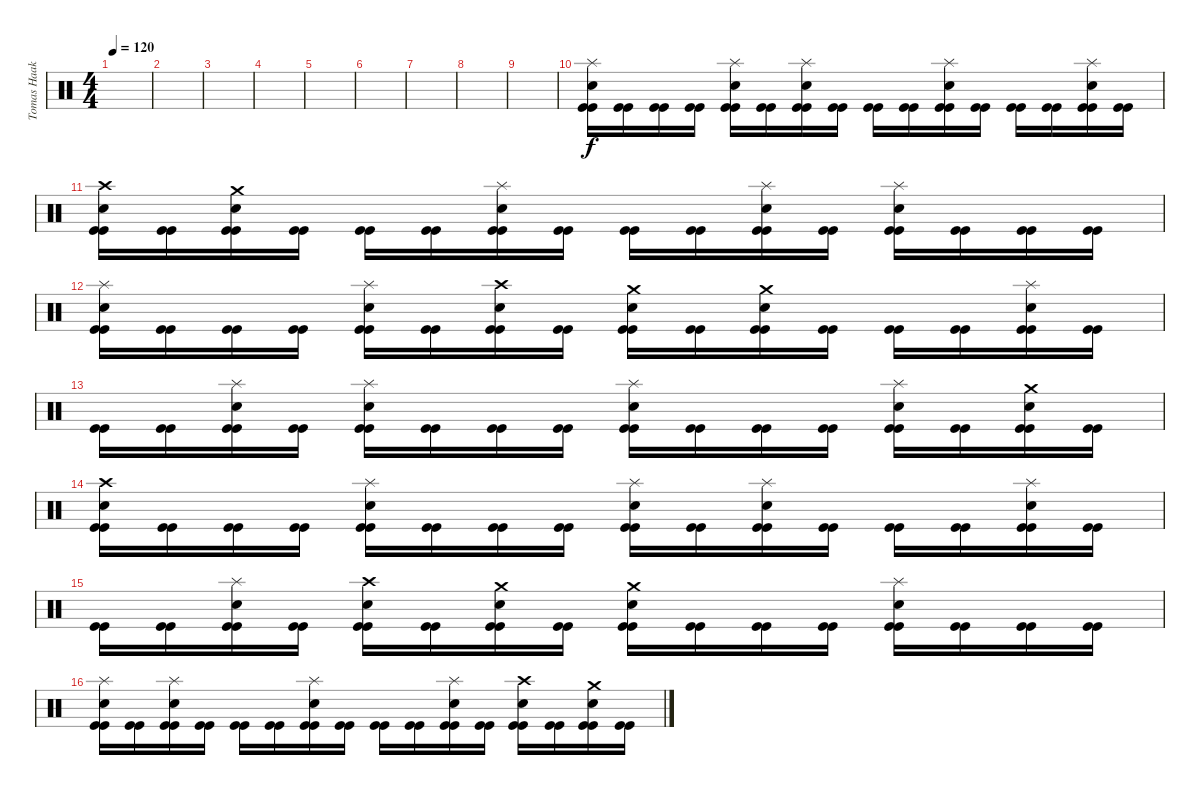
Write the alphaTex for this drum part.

\track ("Tomas Haake" "Tomas Haak") {instrument percussion}
\staff {score}
\articulation defaults
\ts (4 4)
\tempo 120
\clef neutral
\ks c
|
|
|
|
|
|
|
|
|
("Splash (hit)" "Electric Snare (hit)" "Kick (hit)" "Kick (hit)").16 ("Kick (hit)" "Kick (hit)").16 ("Kick (hit)" "Kick (hit)").16 ("Kick (hit)" "Kick (hit)").16 ("Splash (hit)" "Electric Snare (hit)" "Kick (hit)" "Kick (hit)").16 ("Kick (hit)" "Kick (hit)").16 ("Splash (hit)" "Electric Snare (hit)" "Kick (hit)" "Kick (hit)").16 ("Kick (hit)" "Kick (hit)").16 ("Kick (hit)" "Kick (hit)").16 ("Kick (hit)" "Kick (hit)").16 ("Splash (hit)" "Electric Snare (hit)" "Kick (hit)" "Kick (hit)").16 ("Kick (hit)" "Kick (hit)").16 ("Kick (hit)" "Kick (hit)").16 ("Kick (hit)" "Kick (hit)").16 ("Splash (hit)" "Electric Snare (hit)" "Kick (hit)" "Kick (hit)").16 ("Kick (hit)" "Kick (hit)").16 |
("Crash high (hit)" "Electric Snare (hit)" "Kick (hit)" "Kick (hit)").16 ("Kick (hit)" "Kick (hit)").16 ("Crash medium (hit)" "Electric Snare (hit)" "Kick (hit)" "Kick (hit)").16 ("Kick (hit)" "Kick (hit)").16 ("Kick (hit)" "Kick (hit)").16 ("Kick (hit)" "Kick (hit)").16 ("Splash (hit)" "Electric Snare (hit)" "Kick (hit)" "Kick (hit)").16 ("Kick (hit)" "Kick (hit)").16 ("Kick (hit)" "Kick (hit)").16 ("Kick (hit)" "Kick (hit)").16 ("Splash (hit)" "Electric Snare (hit)" "Kick (hit)" "Kick (hit)").16 ("Kick (hit)" "Kick (hit)").16 ("Splash (hit)" "Electric Snare (hit)" "Kick (hit)" "Kick (hit)").16 ("Kick (hit)" "Kick (hit)").16 ("Kick (hit)" "Kick (hit)").16 ("Kick (hit)" "Kick (hit)").16 |
("Splash (hit)" "Electric Snare (hit)" "Kick (hit)" "Kick (hit)").16 ("Kick (hit)" "Kick (hit)").16 ("Kick (hit)" "Kick (hit)").16 ("Kick (hit)" "Kick (hit)").16 ("Splash (hit)" "Electric Snare (hit)" "Kick (hit)" "Kick (hit)").16 ("Kick (hit)" "Kick (hit)").16 ("Crash high (hit)" "Electric Snare (hit)" "Kick (hit)" "Kick (hit)").16 ("Kick (hit)" "Kick (hit)").16 ("Crash medium (hit)" "Electric Snare (hit)" "Kick (hit)" "Kick (hit)").16 ("Kick (hit)" "Kick (hit)").16 ("Crash medium (hit)" "Electric Snare (hit)" "Kick (hit)" "Kick (hit)").16 ("Kick (hit)" "Kick (hit)").16 ("Kick (hit)" "Kick (hit)").16 ("Kick (hit)" "Kick (hit)").16 ("Splash (hit)" "Electric Snare (hit)" "Kick (hit)" "Kick (hit)").16 ("Kick (hit)" "Kick (hit)").16 |
("Kick (hit)" "Kick (hit)").16 ("Kick (hit)" "Kick (hit)").16 ("Splash (hit)" "Electric Snare (hit)" "Kick (hit)" "Kick (hit)").16 ("Kick (hit)" "Kick (hit)").16 ("Splash (hit)" "Electric Snare (hit)" "Kick (hit)" "Kick (hit)").16 ("Kick (hit)" "Kick (hit)").16 ("Kick (hit)" "Kick (hit)").16 ("Kick (hit)" "Kick (hit)").16 ("Splash (hit)" "Electric Snare (hit)" "Kick (hit)" "Kick (hit)").16 ("Kick (hit)" "Kick (hit)").16 ("Kick (hit)" "Kick (hit)").16 ("Kick (hit)" "Kick (hit)").16 ("Splash (hit)" "Electric Snare (hit)" "Kick (hit)" "Kick (hit)").16 ("Kick (hit)" "Kick (hit)").16 ("Crash medium (hit)" "Electric Snare (hit)" "Kick (hit)" "Kick (hit)").16 ("Kick (hit)" "Kick (hit)").16 |
("Crash high (hit)" "Electric Snare (hit)" "Kick (hit)" "Kick (hit)").16 ("Kick (hit)" "Kick (hit)").16 ("Kick (hit)" "Kick (hit)").16 ("Kick (hit)" "Kick (hit)").16 ("Splash (hit)" "Electric Snare (hit)" "Kick (hit)" "Kick (hit)").16 ("Kick (hit)" "Kick (hit)").16 ("Kick (hit)" "Kick (hit)").16 ("Kick (hit)" "Kick (hit)").16 ("Splash (hit)" "Electric Snare (hit)" "Kick (hit)" "Kick (hit)").16 ("Kick (hit)" "Kick (hit)").16 ("Splash (hit)" "Electric Snare (hit)" "Kick (hit)" "Kick (hit)").16 ("Kick (hit)" "Kick (hit)").16 ("Kick (hit)" "Kick (hit)").16 ("Kick (hit)" "Kick (hit)").16 ("Splash (hit)" "Electric Snare (hit)" "Kick (hit)" "Kick (hit)").16 ("Kick (hit)" "Kick (hit)").16 |
("Kick (hit)" "Kick (hit)").16 ("Kick (hit)" "Kick (hit)").16 ("Splash (hit)" "Electric Snare (hit)" "Kick (hit)" "Kick (hit)").16 ("Kick (hit)" "Kick (hit)").16 ("Crash high (hit)" "Electric Snare (hit)" "Kick (hit)" "Kick (hit)").16 ("Kick (hit)" "Kick (hit)").16 ("Crash medium (hit)" "Electric Snare (hit)" "Kick (hit)" "Kick (hit)").16 ("Kick (hit)" "Kick (hit)").16 ("Crash medium (hit)" "Electric Snare (hit)" "Kick (hit)" "Kick (hit)").16 ("Kick (hit)" "Kick (hit)").16 ("Kick (hit)" "Kick (hit)").16 ("Kick (hit)" "Kick (hit)").16 ("Splash (hit)" "Electric Snare (hit)" "Kick (hit)" "Kick (hit)").16 ("Kick (hit)" "Kick (hit)").16 ("Kick (hit)" "Kick (hit)").16 ("Kick (hit)" "Kick (hit)").16 |
("Splash (hit)" "Electric Snare (hit)" "Kick (hit)" "Kick (hit)").16 ("Kick (hit)" "Kick (hit)").16 ("Splash (hit)" "Electric Snare (hit)" "Kick (hit)" "Kick (hit)").16 ("Kick (hit)" "Kick (hit)").16 ("Kick (hit)" "Kick (hit)").16 ("Kick (hit)" "Kick (hit)").16 ("Splash (hit)" "Electric Snare (hit)" "Kick (hit)" "Kick (hit)").16 ("Kick (hit)" "Kick (hit)").16 ("Kick (hit)" "Kick (hit)").16 ("Kick (hit)" "Kick (hit)").16 ("Splash (hit)" "Electric Snare (hit)" "Kick (hit)" "Kick (hit)").16 ("Kick (hit)" "Kick (hit)").16 ("Crash high (hit)" "Electric Snare (hit)" "Kick (hit)" "Kick (hit)").16 ("Kick (hit)" "Kick (hit)").16 ("Crash medium (hit)" "Electric Snare (hit)" "Kick (hit)" "Kick (hit)").16 ("Kick (hit)" "Kick (hit)").16
